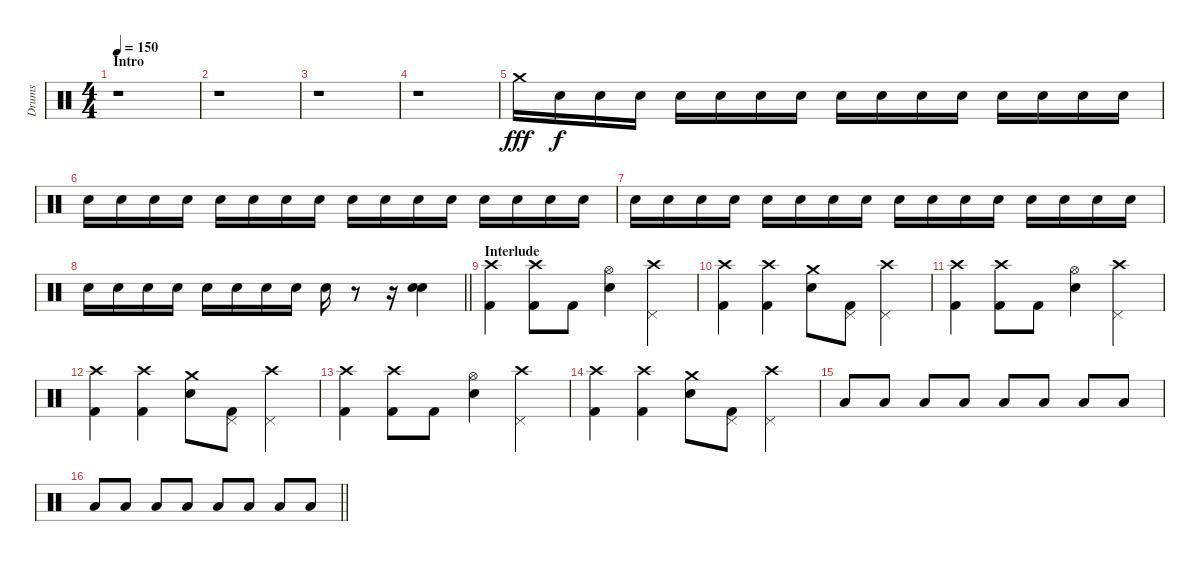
\track ("Drums" "Drums") {instrument percussion}
\staff {score}
\articulation defaults
\ts (4 4)
\section ("" "Intro")
\tempo 150
\clef neutral
\ks c
r.1{dy fff} |
r.1 |
r.1 |
r.1 |
"Crash medium (hit)".16{volume 4} "Electric Snare (hit)".16{dy f volume 14} "Electric Snare (hit)".16 "Electric Snare (hit)".16 "Electric Snare (hit)".16 "Electric Snare (hit)".16 "Electric Snare (hit)".16 "Electric Snare (hit)".16 "Electric Snare (hit)".16 "Electric Snare (hit)".16 "Electric Snare (hit)".16 "Electric Snare (hit)".16 "Electric Snare (hit)".16 "Electric Snare (hit)".16 "Electric Snare (hit)".16 "Electric Snare (hit)".16 |
"Electric Snare (hit)".16 "Electric Snare (hit)".16 "Electric Snare (hit)".16 "Electric Snare (hit)".16 "Electric Snare (hit)".16 "Electric Snare (hit)".16 "Electric Snare (hit)".16 "Electric Snare (hit)".16 "Electric Snare (hit)".16 "Electric Snare (hit)".16 "Electric Snare (hit)".16 "Electric Snare (hit)".16 "Electric Snare (hit)".16 "Electric Snare (hit)".16 "Electric Snare (hit)".16 "Electric Snare (hit)".16 |
"Electric Snare (hit)".16 "Electric Snare (hit)".16 "Electric Snare (hit)".16 "Electric Snare (hit)".16 "Electric Snare (hit)".16 "Electric Snare (hit)".16 "Electric Snare (hit)".16 "Electric Snare (hit)".16 "Electric Snare (hit)".16 "Electric Snare (hit)".16 "Electric Snare (hit)".16 "Electric Snare (hit)".16 "Electric Snare (hit)".16 "Electric Snare (hit)".16 "Electric Snare (hit)".16 "Electric Snare (hit)".16 |
\barLineRight lightlight "Electric Snare (hit)".16 "Electric Snare (hit)".16 "Electric Snare (hit)".16 "Electric Snare (hit)".16 "Electric Snare (hit)".16 "Electric Snare (hit)".16 "Electric Snare (hit)".16 "Electric Snare (hit)".16 "Electric Snare (hit)".16
r.8 r.16 ("Electric Snare (hit)" "Electric Snare (hit)").4 |
\section ("" "Interlude")
("Kick (hit) 2" "Crash high (hit)").4 ("Kick (hit) 2" "Crash high (hit)").8 "Kick (hit) 2".8 ("Electric Snare (hit)" "Hi-Hat (open)").4 ("Crash high (hit)" "Pedal Hi-Hat (hit)").4 |
("Kick (hit) 2" "Crash high (hit)").4 ("Kick (hit) 2" "Crash high (hit)").4 ("Electric Snare (hit)" "Crash medium (hit)").8 ("Kick (hit) 2" "Pedal Hi-Hat (hit)").8 ("Crash high (hit)" "Pedal Hi-Hat (hit)").4 |
("Kick (hit) 2" "Crash high (hit)").4 ("Kick (hit) 2" "Crash high (hit)").8 "Kick (hit) 2".8 ("Electric Snare (hit)" "Hi-Hat (open)").4 ("Crash high (hit)" "Pedal Hi-Hat (hit)").4 |
("Kick (hit) 2" "Crash high (hit)").4 ("Kick (hit) 2" "Crash high (hit)").4 ("Electric Snare (hit)" "Crash medium (hit)").8 ("Kick (hit) 2" "Pedal Hi-Hat (hit)").8 ("Crash high (hit)" "Pedal Hi-Hat (hit)").4 |
("Kick (hit) 2" "Crash high (hit)").4 ("Kick (hit) 2" "Crash high (hit)").8 "Kick (hit) 2".8 ("Electric Snare (hit)" "Hi-Hat (open)").4 ("Crash high (hit)" "Pedal Hi-Hat (hit)").4 |
("Kick (hit) 2" "Crash high (hit)").4 ("Kick (hit) 2" "Crash high (hit)").4 ("Electric Snare (hit)" "Crash medium (hit)").8 ("Kick (hit) 2" "Pedal Hi-Hat (hit)").8 ("Crash high (hit)" "Pedal Hi-Hat (hit)").4 |
"Low Floor Tom (hit)".8 "Low Floor Tom (hit)".8 "Low Floor Tom (hit)".8 "Low Floor Tom (hit)".8 "Low Floor Tom (hit)".8 "Low Floor Tom (hit)".8 "Low Floor Tom (hit)".8 "Low Floor Tom (hit)".8 |
\barLineRight lightlight "Low Floor Tom (hit)".8 "Low Floor Tom (hit)".8 "Low Floor Tom (hit)".8 "Low Floor Tom (hit)".8 "Low Floor Tom (hit)".8 "Low Floor Tom (hit)".8 "Low Floor Tom (hit)".8 "Low Floor Tom (hit)".8
